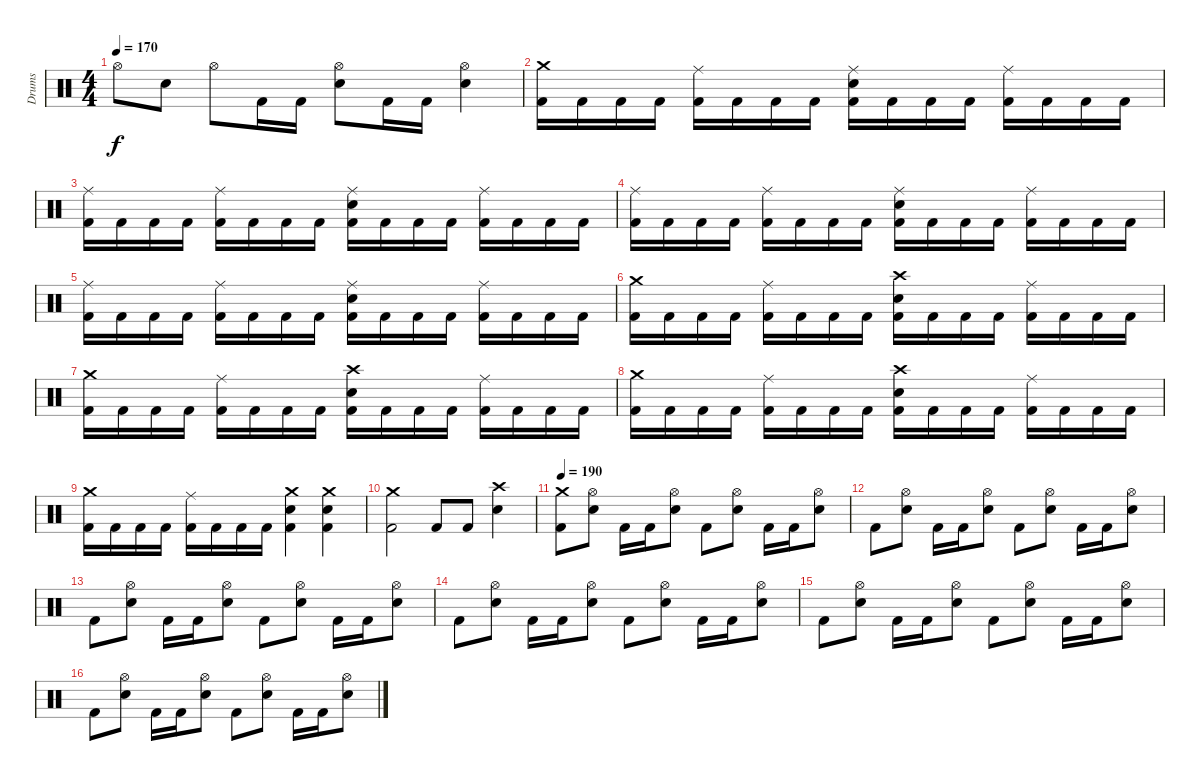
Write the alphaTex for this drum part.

\track ("Drums" "Drums") {instrument percussion}
\staff {score}
\articulation defaults
\ts (4 4)
\tempo 170
\clef neutral
\ks c "Hi-Hat (open)".8{dy f} "Electric Snare (hit)".8 "Hi-Hat (open)".8 "Kick (hit) 2".16 "Kick (hit) 2".16
("Hi-Hat (open)" "Electric Snare (hit)").8 "Kick (hit) 2".16 "Kick (hit) 2".16 ("Hi-Hat (open)" "Electric Snare (hit)").4 |
("Crash medium (hit)" "Kick (hit) 2").16 "Kick (hit) 2".16 "Kick (hit) 2".16 "Kick (hit) 2".16 ("Ride (middle)" "Kick (hit) 2").16 "Kick (hit) 2".16 "Kick (hit) 2".16 "Kick (hit) 2".16 ("Ride (middle)" "Electric Snare (hit)" "Kick (hit) 2").16 "Kick (hit) 2".16 "Kick (hit) 2".16 "Kick (hit) 2".16 ("Ride (middle)" "Kick (hit) 2").16 "Kick (hit) 2".16 "Kick (hit) 2".16 "Kick (hit) 2".16 |
("Ride (middle)" "Kick (hit) 2").16 "Kick (hit) 2".16 "Kick (hit) 2".16 "Kick (hit) 2".16 ("Ride (middle)" "Kick (hit) 2").16 "Kick (hit) 2".16 "Kick (hit) 2".16 "Kick (hit) 2".16 ("Ride (middle)" "Electric Snare (hit)" "Kick (hit) 2").16 "Kick (hit) 2".16 "Kick (hit) 2".16 "Kick (hit) 2".16 ("Ride (middle)" "Kick (hit) 2").16 "Kick (hit) 2".16 "Kick (hit) 2".16 "Kick (hit) 2".16 |
("Ride (middle)" "Kick (hit) 2").16 "Kick (hit) 2".16 "Kick (hit) 2".16 "Kick (hit) 2".16 ("Ride (middle)" "Kick (hit) 2").16 "Kick (hit) 2".16 "Kick (hit) 2".16 "Kick (hit) 2".16 ("Ride (middle)" "Electric Snare (hit)" "Kick (hit) 2").16 "Kick (hit) 2".16 "Kick (hit) 2".16 "Kick (hit) 2".16 ("Ride (middle)" "Kick (hit) 2").16 "Kick (hit) 2".16 "Kick (hit) 2".16 "Kick (hit) 2".16 |
("Ride (middle)" "Kick (hit) 2").16 "Kick (hit) 2".16 "Kick (hit) 2".16 "Kick (hit) 2".16 ("Ride (middle)" "Kick (hit) 2").16 "Kick (hit) 2".16 "Kick (hit) 2".16 "Kick (hit) 2".16 ("Ride (middle)" "Electric Snare (hit)" "Kick (hit) 2").16 "Kick (hit) 2".16 "Kick (hit) 2".16 "Kick (hit) 2".16 ("Ride (middle)" "Kick (hit) 2").16 "Kick (hit) 2".16 "Kick (hit) 2".16 "Kick (hit) 2".16 |
("Crash medium (hit)" "Kick (hit) 2").16 "Kick (hit) 2".16 "Kick (hit) 2".16 "Kick (hit) 2".16 ("Ride (middle)" "Kick (hit) 2").16 "Kick (hit) 2".16 "Kick (hit) 2".16 "Kick (hit) 2".16 ("Crash high (hit)" "Electric Snare (hit)" "Kick (hit) 2").16 "Kick (hit) 2".16 "Kick (hit) 2".16 "Kick (hit) 2".16 ("Ride (middle)" "Kick (hit) 2").16 "Kick (hit) 2".16 "Kick (hit) 2".16 "Kick (hit) 2".16 |
("Crash medium (hit)" "Kick (hit) 2").16 "Kick (hit) 2".16 "Kick (hit) 2".16 "Kick (hit) 2".16 ("Ride (middle)" "Kick (hit) 2").16 "Kick (hit) 2".16 "Kick (hit) 2".16 "Kick (hit) 2".16 ("Crash high (hit)" "Electric Snare (hit)" "Kick (hit) 2").16 "Kick (hit) 2".16 "Kick (hit) 2".16 "Kick (hit) 2".16 ("Ride (middle)" "Kick (hit) 2").16 "Kick (hit) 2".16 "Kick (hit) 2".16 "Kick (hit) 2".16 |
("Crash medium (hit)" "Kick (hit) 2").16 "Kick (hit) 2".16 "Kick (hit) 2".16 "Kick (hit) 2".16 ("Ride (middle)" "Kick (hit) 2").16 "Kick (hit) 2".16 "Kick (hit) 2".16 "Kick (hit) 2".16 ("Crash high (hit)" "Electric Snare (hit)" "Kick (hit) 2").16 "Kick (hit) 2".16 "Kick (hit) 2".16 "Kick (hit) 2".16 ("Ride (middle)" "Kick (hit) 2").16 "Kick (hit) 2".16 "Kick (hit) 2".16 "Kick (hit) 2".16 |
("Crash medium (hit)" "Kick (hit) 2").16 "Kick (hit) 2".16 "Kick (hit) 2".16 "Kick (hit) 2".16 ("Ride (middle)" "Kick (hit) 2").16 "Kick (hit) 2".16 "Kick (hit) 2".16 "Kick (hit) 2".16 ("Crash medium (hit)" "Electric Snare (hit)" "Kick (hit) 2").4 ("Crash medium (hit)" "Electric Snare (hit)" "Kick (hit) 2").4 |
("Crash medium (hit)" "Kick (hit) 2").2 "Kick (hit) 2".8 "Kick (hit) 2".8 ("Crash high (hit)" "Electric Snare (hit)").4 |
\tempo 190
("Crash medium (hit)" "Kick (hit) 2").8 ("Hi-Hat (open)" "Electric Snare (hit)").8 "Kick (hit) 2".16 "Kick (hit) 2".16 ("Hi-Hat (open)" "Electric Snare (hit)").8 "Kick (hit) 2".8 ("Hi-Hat (open)" "Electric Snare (hit)").8 "Kick (hit) 2".16 "Kick (hit) 2".16 ("Hi-Hat (open)" "Electric Snare (hit)").8 |
"Kick (hit) 2".8 ("Hi-Hat (open)" "Electric Snare (hit)").8 "Kick (hit) 2".16 "Kick (hit) 2".16 ("Hi-Hat (open)" "Electric Snare (hit)").8 "Kick (hit) 2".8 ("Hi-Hat (open)" "Electric Snare (hit)").8 "Kick (hit) 2".16 "Kick (hit) 2".16 ("Hi-Hat (open)" "Electric Snare (hit)").8 |
"Kick (hit) 2".8 ("Hi-Hat (open)" "Electric Snare (hit)").8 "Kick (hit) 2".16 "Kick (hit) 2".16 ("Hi-Hat (open)" "Electric Snare (hit)").8 "Kick (hit) 2".8 ("Hi-Hat (open)" "Electric Snare (hit)").8 "Kick (hit) 2".16 "Kick (hit) 2".16 ("Hi-Hat (open)" "Electric Snare (hit)").8 |
"Kick (hit) 2".8 ("Hi-Hat (open)" "Electric Snare (hit)").8 "Kick (hit) 2".16 "Kick (hit) 2".16 ("Hi-Hat (open)" "Electric Snare (hit)").8 "Kick (hit) 2".8 ("Hi-Hat (open)" "Electric Snare (hit)").8 "Kick (hit) 2".16 "Kick (hit) 2".16 ("Hi-Hat (open)" "Electric Snare (hit)").8 |
"Kick (hit) 2".8 ("Hi-Hat (open)" "Electric Snare (hit)").8 "Kick (hit) 2".16 "Kick (hit) 2".16 ("Hi-Hat (open)" "Electric Snare (hit)").8 "Kick (hit) 2".8 ("Hi-Hat (open)" "Electric Snare (hit)").8 "Kick (hit) 2".16 "Kick (hit) 2".16 ("Hi-Hat (open)" "Electric Snare (hit)").8 |
"Kick (hit) 2".8 ("Hi-Hat (open)" "Electric Snare (hit)").8 "Kick (hit) 2".16 "Kick (hit) 2".16 ("Hi-Hat (open)" "Electric Snare (hit)").8 "Kick (hit) 2".8 ("Hi-Hat (open)" "Electric Snare (hit)").8 "Kick (hit) 2".16 "Kick (hit) 2".16 ("Hi-Hat (open)" "Electric Snare (hit)").8
